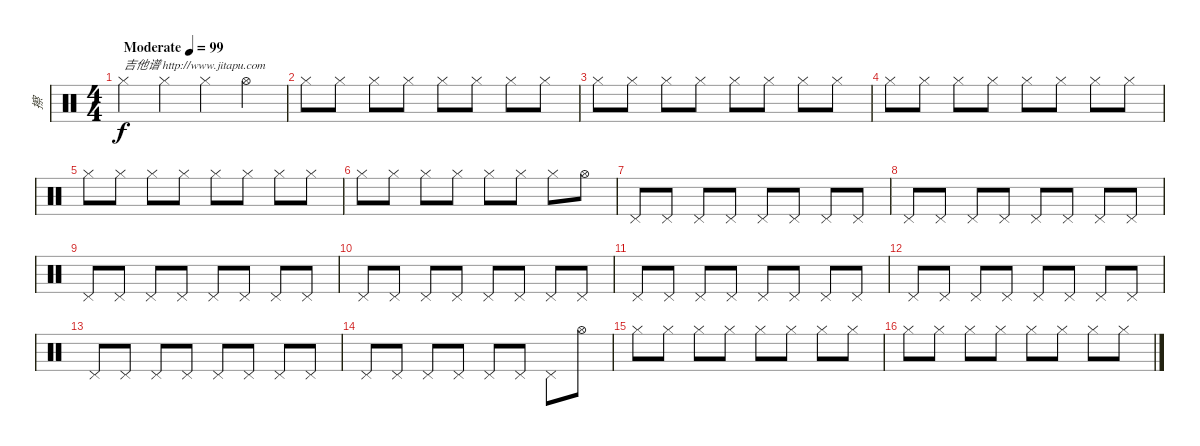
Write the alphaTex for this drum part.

\track ("擦" "擦") {instrument percussion}
\staff {score}
\articulation defaults
\ts (4 4)
\tempo (99 "Moderate")
\clef neutral
\ks c "Hi-Hat (closed)".4{txt "吉他谱 http://www.jitapu.com" dy f volume 7} "Hi-Hat (closed)".4 "Hi-Hat (closed)".4 "Hi-Hat (open)".4
|
"Hi-Hat (closed)".8 "Hi-Hat (closed)".8 "Hi-Hat (closed)".8 "Hi-Hat (closed)".8 "Hi-Hat (closed)".8 "Hi-Hat (closed)".8 "Hi-Hat (closed)".8 "Hi-Hat (closed)".8 |
"Hi-Hat (closed)".8 "Hi-Hat (closed)".8 "Hi-Hat (closed)".8 "Hi-Hat (closed)".8 "Hi-Hat (closed)".8 "Hi-Hat (closed)".8 "Hi-Hat (closed)".8 "Hi-Hat (closed)".8 |
"Hi-Hat (closed)".8 "Hi-Hat (closed)".8 "Hi-Hat (closed)".8 "Hi-Hat (closed)".8 "Hi-Hat (closed)".8 "Hi-Hat (closed)".8 "Hi-Hat (closed)".8 "Hi-Hat (closed)".8 |
"Hi-Hat (closed)".8 "Hi-Hat (closed)".8 "Hi-Hat (closed)".8 "Hi-Hat (closed)".8 "Hi-Hat (closed)".8 "Hi-Hat (closed)".8 "Hi-Hat (closed)".8 "Hi-Hat (closed)".8 |
"Hi-Hat (closed)".8 "Hi-Hat (closed)".8 "Hi-Hat (closed)".8 "Hi-Hat (closed)".8 "Hi-Hat (closed)".8 "Hi-Hat (closed)".8 "Hi-Hat (closed)".8 "Hi-Hat (open)".8 |
"Pedal Hi-Hat (hit)".8 "Pedal Hi-Hat (hit)".8 "Pedal Hi-Hat (hit)".8 "Pedal Hi-Hat (hit)".8 "Pedal Hi-Hat (hit)".8 "Pedal Hi-Hat (hit)".8 "Pedal Hi-Hat (hit)".8 "Pedal Hi-Hat (hit)".8 |
"Pedal Hi-Hat (hit)".8 "Pedal Hi-Hat (hit)".8 "Pedal Hi-Hat (hit)".8 "Pedal Hi-Hat (hit)".8 "Pedal Hi-Hat (hit)".8 "Pedal Hi-Hat (hit)".8 "Pedal Hi-Hat (hit)".8 "Pedal Hi-Hat (hit)".8 |
"Pedal Hi-Hat (hit)".8 "Pedal Hi-Hat (hit)".8 "Pedal Hi-Hat (hit)".8 "Pedal Hi-Hat (hit)".8 "Pedal Hi-Hat (hit)".8 "Pedal Hi-Hat (hit)".8 "Pedal Hi-Hat (hit)".8 "Pedal Hi-Hat (hit)".8 |
"Pedal Hi-Hat (hit)".8 "Pedal Hi-Hat (hit)".8 "Pedal Hi-Hat (hit)".8 "Pedal Hi-Hat (hit)".8 "Pedal Hi-Hat (hit)".8 "Pedal Hi-Hat (hit)".8 "Pedal Hi-Hat (hit)".8 "Pedal Hi-Hat (hit)".8 |
"Pedal Hi-Hat (hit)".8 "Pedal Hi-Hat (hit)".8 "Pedal Hi-Hat (hit)".8 "Pedal Hi-Hat (hit)".8 "Pedal Hi-Hat (hit)".8 "Pedal Hi-Hat (hit)".8 "Pedal Hi-Hat (hit)".8 "Pedal Hi-Hat (hit)".8 |
"Pedal Hi-Hat (hit)".8 "Pedal Hi-Hat (hit)".8 "Pedal Hi-Hat (hit)".8 "Pedal Hi-Hat (hit)".8 "Pedal Hi-Hat (hit)".8 "Pedal Hi-Hat (hit)".8 "Pedal Hi-Hat (hit)".8 "Pedal Hi-Hat (hit)".8 |
"Pedal Hi-Hat (hit)".8 "Pedal Hi-Hat (hit)".8 "Pedal Hi-Hat (hit)".8 "Pedal Hi-Hat (hit)".8 "Pedal Hi-Hat (hit)".8 "Pedal Hi-Hat (hit)".8 "Pedal Hi-Hat (hit)".8 "Pedal Hi-Hat (hit)".8 |
"Pedal Hi-Hat (hit)".8 "Pedal Hi-Hat (hit)".8 "Pedal Hi-Hat (hit)".8 "Pedal Hi-Hat (hit)".8 "Pedal Hi-Hat (hit)".8 "Pedal Hi-Hat (hit)".8 "Pedal Hi-Hat (hit)".8 "Hi-Hat (open)".8 |
"Hi-Hat (closed)".8 "Hi-Hat (closed)".8 "Hi-Hat (closed)".8 "Hi-Hat (closed)".8 "Hi-Hat (closed)".8 "Hi-Hat (closed)".8 "Hi-Hat (closed)".8 "Hi-Hat (closed)".8 |
"Hi-Hat (closed)".8 "Hi-Hat (closed)".8 "Hi-Hat (closed)".8 "Hi-Hat (closed)".8 "Hi-Hat (closed)".8 "Hi-Hat (closed)".8 "Hi-Hat (closed)".8 "Hi-Hat (closed)".8
